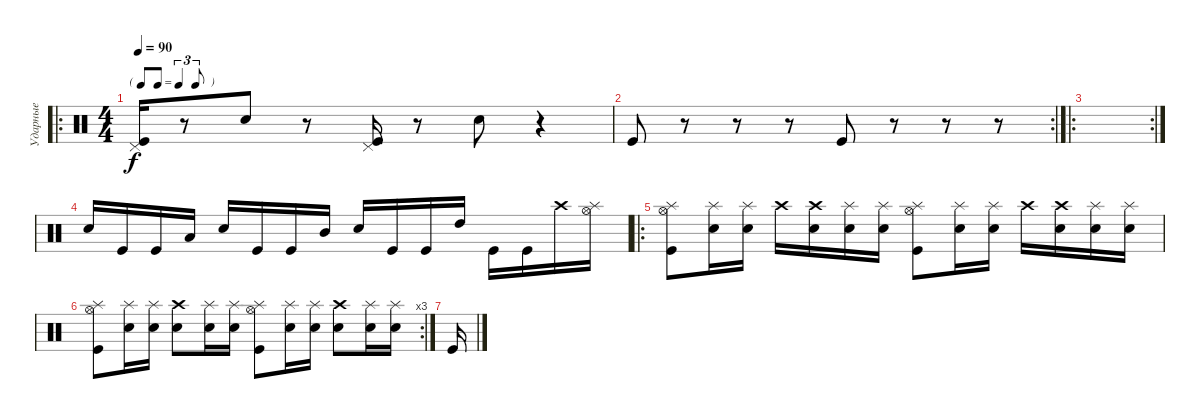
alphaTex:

\track ("Ударные" "Ударные") {instrument percussion}
\staff {score}
\articulation defaults
\ro
\ts (4 4)
\tf triplet8th
\tempo 90
\clef neutral
\ks c
("Kick (hit)" "Pedal Hi-Hat (hit)").16{dy f} r.8 "Electric Snare (hit)".8 r.8 ("Kick (hit)" "Pedal Hi-Hat (hit)").16 r.8 "Electric Snare (hit)".8 r.4 |
\rc 2 "Kick (hit)".8
r.8 r.8 r.8 "Kick (hit)".8 r.8 r.8 r.8 |
\ro
\rc 2
|
"Electric Snare (hit)".16 "Kick (hit)".16 "Kick (hit)".16 "Low Tom (hit)".16 "Electric Snare (hit)".16 "Kick (hit)".16 "Kick (hit)".16 "Mid Tom (hit)".16 "Electric Snare (hit)".16 "Kick (hit)".16 "Kick (hit)".16 "High Tom (hit)".16 "Kick (hit)".16 "Kick (hit)".16 "Crash high (hit)".16 ("Splash (hit)" "Hi-Hat (open)").16 |
\ro
("Kick (hit)" "Hi-Hat (open)" "Splash (hit)").8 ("Electric Snare (hit)" "Splash (hit)").16 ("Electric Snare (hit)" "Splash (hit)").16 "Crash high (hit)".16 ("Electric Snare (hit)" "Crash high (hit)").16 ("Electric Snare (hit)" "Splash (hit)").16 ("Electric Snare (hit)" "Splash (hit)").16 ("Kick (hit)" "Hi-Hat (open)" "Splash (hit)").8 ("Electric Snare (hit)" "Splash (hit)").16 ("Electric Snare (hit)" "Splash (hit)").16 "Crash high (hit)".16 ("Electric Snare (hit)" "Crash high (hit)").16 ("Electric Snare (hit)" "Splash (hit)").16 ("Electric Snare (hit)" "Splash (hit)").16 |
\rc 3
("Kick (hit)" "Hi-Hat (open)" "Splash (hit)").8 ("Electric Snare (hit)" "Splash (hit)").16 ("Electric Snare (hit)" "Splash (hit)").16 ("Electric Snare (hit)" "Crash high (hit)").8 ("Electric Snare (hit)" "Splash (hit)").16 ("Electric Snare (hit)" "Splash (hit)").16 ("Kick (hit)" "Hi-Hat (open)" "Splash (hit)").8 ("Electric Snare (hit)" "Splash (hit)").16 ("Electric Snare (hit)" "Splash (hit)").16 ("Electric Snare (hit)" "Crash high (hit)").8 ("Electric Snare (hit)" "Splash (hit)").16 ("Electric Snare (hit)" "Splash (hit)").16 |
"Kick (hit)".16
